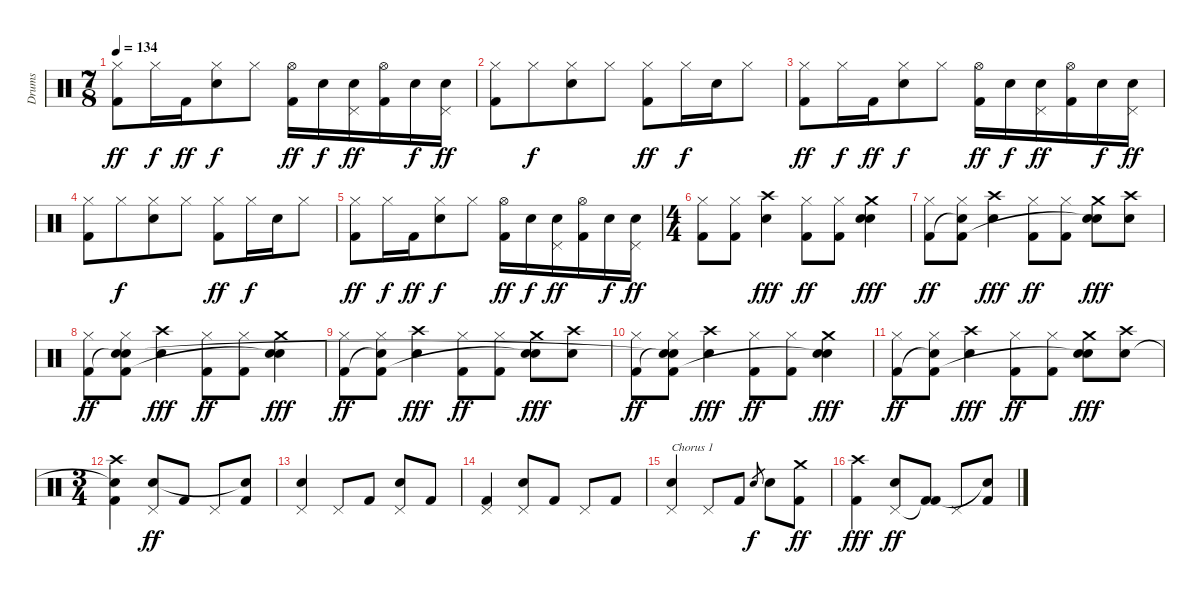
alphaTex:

\track ("Drums" "Drums") {instrument percussion}
\staff {score}
\articulation defaults
\ts (7 8)
\tempo 134
\clef neutral
\ks c
("Hi-Hat (closed)" "Kick (hit) 2").8{dy ff} "Hi-Hat (closed)".16{dy f} "Kick (hit) 2".16{dy ff} ("Hi-Hat (closed)" "Snare (hit) 2").8{dy f} "Hi-Hat (closed)".8 ("Hi-Hat (open)" "Kick (hit) 2").16{dy ff} "Snare (hit) 2".16{dy f} ("Pedal Hi-Hat (hit)" "Snare (hit) 2").16{dy ff} ("Hi-Hat (open)" "Kick (hit) 2").16 "Snare (hit) 2".16{dy f} ("Pedal Hi-Hat (hit)" "Snare (hit) 2").16{dy ff} |
("Hi-Hat (closed)" "Kick (hit) 2").8 "Hi-Hat (closed)".8{dy f} ("Hi-Hat (closed)" "Snare (hit) 2").8 "Hi-Hat (closed)".8 ("Hi-Hat (closed)" "Kick (hit) 2").8{dy ff} "Hi-Hat (closed)".16{dy f} "Snare (hit) 2".16 "Hi-Hat (closed)".8 |
("Hi-Hat (closed)" "Kick (hit) 2").8{dy ff} "Hi-Hat (closed)".16{dy f} "Kick (hit) 2".16{dy ff} ("Hi-Hat (closed)" "Snare (hit) 2").8{dy f} "Hi-Hat (closed)".8 ("Hi-Hat (open)" "Kick (hit) 2").16{dy ff} "Snare (hit) 2".16{dy f} ("Pedal Hi-Hat (hit)" "Snare (hit) 2").16{dy ff} ("Hi-Hat (open)" "Kick (hit) 2").16 "Snare (hit) 2".16{dy f} ("Pedal Hi-Hat (hit)" "Snare (hit) 2").16{dy ff} |
("Hi-Hat (closed)" "Kick (hit) 2").8 "Hi-Hat (closed)".8{dy f} ("Hi-Hat (closed)" "Snare (hit) 2").8 "Hi-Hat (closed)".8 ("Hi-Hat (closed)" "Kick (hit) 2").8{dy ff} "Hi-Hat (closed)".16{dy f} "Snare (hit) 2".16 "Hi-Hat (closed)".8 |
("Hi-Hat (closed)" "Kick (hit) 2").8{dy ff} "Hi-Hat (closed)".16{dy f} "Kick (hit) 2".16{dy ff} ("Hi-Hat (closed)" "Snare (hit) 2").8{dy f} "Hi-Hat (closed)".8 ("Hi-Hat (open)" "Kick (hit) 2").16{dy ff} "Snare (hit) 2".16{dy f} ("Pedal Hi-Hat (hit)" "Snare (hit) 2").16{dy ff} ("Hi-Hat (open)" "Kick (hit) 2").16 "Snare (hit) 2".16{dy f} ("Pedal Hi-Hat (hit)" "Snare (hit) 2").16{dy ff} |
\ts (4 4)
("Hi-Hat (closed)" "Kick (hit) 2").8 ("Hi-Hat (closed)" "Kick (hit) 2").8 ("Snare (hit) 2" "Crash high (hit)").4{dy fff} ("Hi-Hat (closed)" "Kick (hit) 2").8{dy ff} ("Hi-Hat (closed)" "Kick (hit) 2").8 ("Snare (hit) 2" "Crash medium (hit)" "Snare (hit)").4{dy fff} |
("Hi-Hat (closed)" "Kick (hit) 2").8{dy ff} ("Hi-Hat (closed)" "Snare (hit)"{t} "Kick (hit) 2").8 ("Snare (hit) 2" "Crash high (hit)").4{dy fff} ("Hi-Hat (closed)" "Kick (hit) 2").8{dy ff} ("Hi-Hat (closed)" "Kick (hit) 2").8 ("Snare (hit) 2" "Crash medium (hit)" "Snare (hit)"{t}).8{dy fff} ("Snare (hit) 2" "Crash high (hit)").8 |
("Hi-Hat (closed)" "Kick (hit) 2").8{dy ff} ("Hi-Hat (closed)" "Snare (hit)"{t} "Kick (hit) 2" "Snare (hit)").8 ("Snare (hit) 2" "Crash high (hit)").4{dy fff} ("Hi-Hat (closed)" "Kick (hit) 2").8{dy ff} ("Hi-Hat (closed)" "Kick (hit) 2").8 ("Snare (hit) 2" "Crash medium (hit)" "Snare (hit)"{t}).4{dy fff} |
("Hi-Hat (closed)" "Kick (hit) 2").8{dy ff} ("Hi-Hat (closed)" "Snare (hit)"{t} "Kick (hit) 2").8 ("Snare (hit) 2" "Crash high (hit)").4{dy fff} ("Hi-Hat (closed)" "Kick (hit) 2").8{dy ff} ("Hi-Hat (closed)" "Kick (hit) 2").8 ("Snare (hit) 2" "Crash medium (hit)" "Snare (hit)"{t}).8{dy fff} ("Snare (hit) 2" "Crash high (hit)").8 |
("Hi-Hat (closed)" "Kick (hit) 2").8{dy ff} ("Hi-Hat (closed)" "Snare (hit)"{t} "Kick (hit) 2" "Snare (hit)"{t}).8 ("Snare (hit) 2" "Crash high (hit)").4{dy fff} ("Hi-Hat (closed)" "Kick (hit) 2").8{dy ff} ("Hi-Hat (closed)" "Kick (hit) 2").8 ("Snare (hit) 2" "Crash medium (hit)" "Snare (hit)"{t}).4{dy fff} |
("Hi-Hat (closed)" "Kick (hit) 2").8{dy ff} ("Hi-Hat (closed)" "Snare (hit)"{t} "Kick (hit) 2").8 ("Snare (hit) 2" "Crash high (hit)").4{dy fff} ("Hi-Hat (closed)" "Kick (hit) 2").8{dy ff} ("Hi-Hat (closed)" "Kick (hit) 2").8 ("Snare (hit) 2" "Crash medium (hit)" "Snare (hit)"{t}).8{dy fff} ("Snare (hit) 2" "Crash high (hit)").8 |
\ts (3 4)
("Snare (hit)"{t} "Kick (hit) 2" "Crash high (hit)").4 ("Pedal Hi-Hat (hit)" "Snare (hit) 2").8{dy ff} "Kick (hit) 2".8 "Pedal Hi-Hat (hit)".8 ("Kick (hit) 2" "Snare (hit)"{t}).8 |
("Pedal Hi-Hat (hit)" "Snare (hit) 2").4 "Pedal Hi-Hat (hit)".8 "Kick (hit) 2".8 ("Pedal Hi-Hat (hit)" "Snare (hit) 2").8 "Kick (hit) 2".8 |
("Pedal Hi-Hat (hit)" "Kick (hit) 2").4 ("Pedal Hi-Hat (hit)" "Snare (hit) 2").8 "Kick (hit) 2".8 "Pedal Hi-Hat (hit)".8 "Kick (hit) 2".8 |
("Pedal Hi-Hat (hit)" "Snare (hit) 2").4{txt "Chorus 1"} "Pedal Hi-Hat (hit)".8 "Kick (hit) 2".8 "Snare (hit) 2".8{gr dy f} "Snare (hit) 2".8 ("Crash medium (hit)" "Kick (hit) 2").8{dy ff} |
("Kick (hit) 2" "Crash high (hit)").4{dy fff} ("Pedal Hi-Hat (hit)" "Snare (hit) 2").8{dy ff} ("Kick (hit) 2"{t} "Kick (hit) 2").8 "Pedal Hi-Hat (hit)".8 ("Kick (hit) 2" "Snare (hit)"{t}).8
